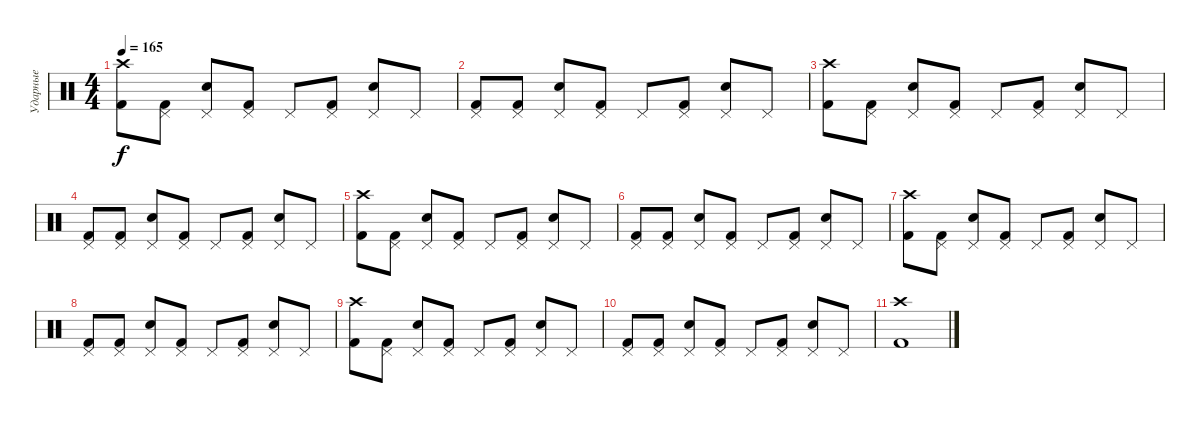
\track ("Ударные" "Ударные") {instrument percussion}
\staff {score}
\articulation defaults
\ts (4 4)
\tempo 165
\clef neutral
\ks c
("Crash high (hit)" "Kick (hit) 2").8{dy f} ("Pedal Hi-Hat (hit)" "Kick (hit) 2").8 ("Pedal Hi-Hat (hit)" "Electric Snare (hit)").8 ("Pedal Hi-Hat (hit)" "Kick (hit) 2").8 "Pedal Hi-Hat (hit)".8 ("Pedal Hi-Hat (hit)" "Kick (hit) 2").8 ("Pedal Hi-Hat (hit)" "Electric Snare (hit)").8 "Pedal Hi-Hat (hit)".8 |
("Pedal Hi-Hat (hit)" "Kick (hit) 2").8 ("Pedal Hi-Hat (hit)" "Kick (hit) 2").8 ("Pedal Hi-Hat (hit)" "Electric Snare (hit)").8 ("Pedal Hi-Hat (hit)" "Kick (hit) 2").8 "Pedal Hi-Hat (hit)".8 ("Pedal Hi-Hat (hit)" "Kick (hit) 2").8 ("Pedal Hi-Hat (hit)" "Electric Snare (hit)").8 "Pedal Hi-Hat (hit)".8 |
("Crash high (hit)" "Kick (hit) 2").8 ("Pedal Hi-Hat (hit)" "Kick (hit) 2").8 ("Pedal Hi-Hat (hit)" "Electric Snare (hit)").8 ("Pedal Hi-Hat (hit)" "Kick (hit) 2").8 "Pedal Hi-Hat (hit)".8 ("Pedal Hi-Hat (hit)" "Kick (hit) 2").8 ("Pedal Hi-Hat (hit)" "Electric Snare (hit)").8 "Pedal Hi-Hat (hit)".8 |
("Pedal Hi-Hat (hit)" "Kick (hit) 2").8 ("Pedal Hi-Hat (hit)" "Kick (hit) 2").8 ("Pedal Hi-Hat (hit)" "Electric Snare (hit)").8 ("Pedal Hi-Hat (hit)" "Kick (hit) 2").8 "Pedal Hi-Hat (hit)".8 ("Pedal Hi-Hat (hit)" "Kick (hit) 2").8 ("Pedal Hi-Hat (hit)" "Electric Snare (hit)").8 "Pedal Hi-Hat (hit)".8 |
("Crash high (hit)" "Kick (hit) 2").8 ("Pedal Hi-Hat (hit)" "Kick (hit) 2").8 ("Pedal Hi-Hat (hit)" "Electric Snare (hit)").8 ("Pedal Hi-Hat (hit)" "Kick (hit) 2").8 "Pedal Hi-Hat (hit)".8 ("Pedal Hi-Hat (hit)" "Kick (hit) 2").8 ("Pedal Hi-Hat (hit)" "Electric Snare (hit)").8 "Pedal Hi-Hat (hit)".8 |
("Pedal Hi-Hat (hit)" "Kick (hit) 2").8 ("Pedal Hi-Hat (hit)" "Kick (hit) 2").8 ("Pedal Hi-Hat (hit)" "Electric Snare (hit)").8 ("Pedal Hi-Hat (hit)" "Kick (hit) 2").8 "Pedal Hi-Hat (hit)".8 ("Pedal Hi-Hat (hit)" "Kick (hit) 2").8 ("Pedal Hi-Hat (hit)" "Electric Snare (hit)").8 "Pedal Hi-Hat (hit)".8 |
("Crash high (hit)" "Kick (hit) 2").8 ("Pedal Hi-Hat (hit)" "Kick (hit) 2").8 ("Pedal Hi-Hat (hit)" "Electric Snare (hit)").8 ("Pedal Hi-Hat (hit)" "Kick (hit) 2").8 "Pedal Hi-Hat (hit)".8 ("Pedal Hi-Hat (hit)" "Kick (hit) 2").8 ("Pedal Hi-Hat (hit)" "Electric Snare (hit)").8 "Pedal Hi-Hat (hit)".8 |
("Pedal Hi-Hat (hit)" "Kick (hit) 2").8 ("Pedal Hi-Hat (hit)" "Kick (hit) 2").8 ("Pedal Hi-Hat (hit)" "Electric Snare (hit)").8 ("Pedal Hi-Hat (hit)" "Kick (hit) 2").8 "Pedal Hi-Hat (hit)".8 ("Pedal Hi-Hat (hit)" "Kick (hit) 2").8 ("Pedal Hi-Hat (hit)" "Electric Snare (hit)").8 "Pedal Hi-Hat (hit)".8 |
("Crash high (hit)" "Kick (hit) 2").8 ("Pedal Hi-Hat (hit)" "Kick (hit) 2").8 ("Pedal Hi-Hat (hit)" "Electric Snare (hit)").8 ("Pedal Hi-Hat (hit)" "Kick (hit) 2").8 "Pedal Hi-Hat (hit)".8 ("Pedal Hi-Hat (hit)" "Kick (hit) 2").8 ("Pedal Hi-Hat (hit)" "Electric Snare (hit)").8 "Pedal Hi-Hat (hit)".8 |
("Pedal Hi-Hat (hit)" "Kick (hit) 2").8 ("Pedal Hi-Hat (hit)" "Kick (hit) 2").8 ("Pedal Hi-Hat (hit)" "Electric Snare (hit)").8 ("Pedal Hi-Hat (hit)" "Kick (hit) 2").8 "Pedal Hi-Hat (hit)".8 ("Pedal Hi-Hat (hit)" "Kick (hit) 2").8 ("Pedal Hi-Hat (hit)" "Electric Snare (hit)").8 "Pedal Hi-Hat (hit)".8 |
("Crash high (hit)" "Kick (hit) 2").1
